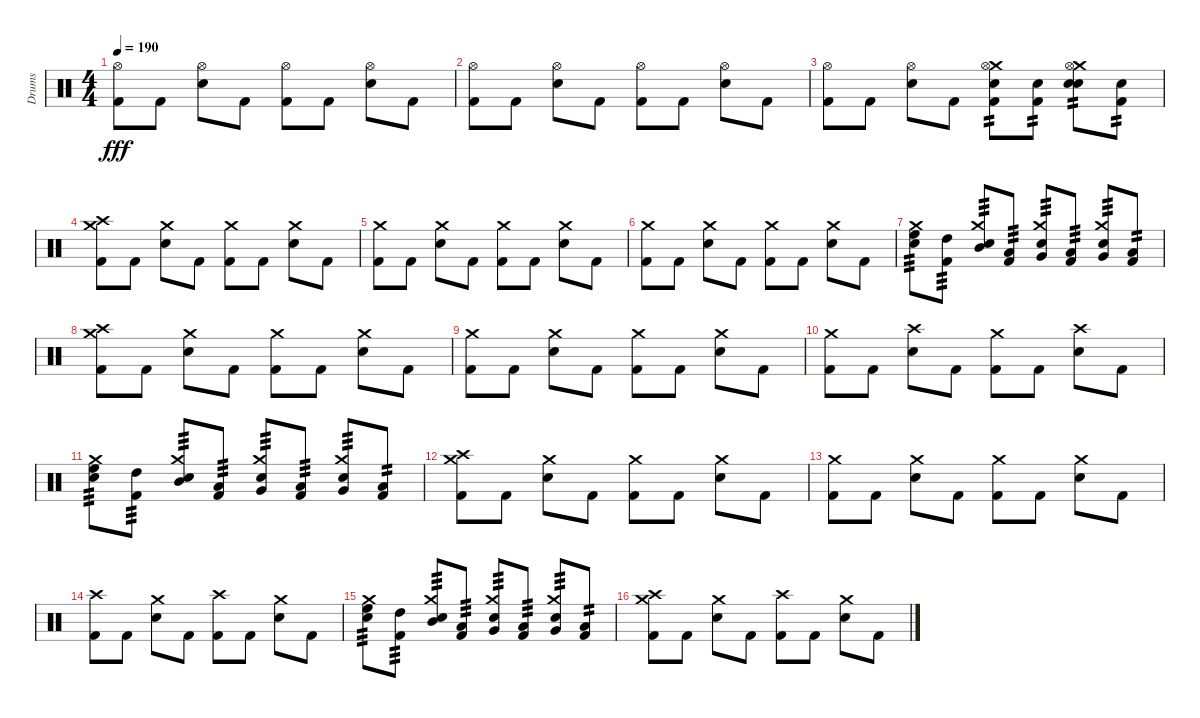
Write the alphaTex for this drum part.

\track ("Drums" "Drums") {instrument percussion}
\staff {score}
\articulation defaults
\ts (4 4)
\tempo 190
\clef neutral
\ks c
("Hi-Hat (open)" "Kick (hit) 2").8{dy fff} "Kick (hit) 2".8 ("Hi-Hat (open)" "Snare (hit) 2").8 "Kick (hit) 2".8 ("Hi-Hat (open)" "Kick (hit) 2").8 "Kick (hit) 2".8 ("Hi-Hat (open)" "Snare (hit) 2").8 "Kick (hit) 2".8 |
("Hi-Hat (open)" "Kick (hit) 2").8 "Kick (hit) 2".8 ("Hi-Hat (open)" "Snare (hit) 2").8 "Kick (hit) 2".8 ("Hi-Hat (open)" "Kick (hit) 2").8 "Kick (hit) 2".8 ("Hi-Hat (open)" "Snare (hit) 2").8 "Kick (hit) 2".8 |
("Hi-Hat (open)" "Kick (hit) 2").8 "Kick (hit) 2".8 ("Hi-Hat (open)" "Snare (hit) 2").8 "Kick (hit) 2".8 ("Crash medium (hit)" "Hi-Hat (open)" "Electric Snare (hit)" "Kick (hit) 2").8{tp 2} ("Electric Snare (hit)" "Kick (hit) 2").8{tp 2} ("Crash medium (hit)" "Hi-Hat (open)" "Electric Snare (hit)" "Snare (hit) 2").8{tp 2} ("Electric Snare (hit)" "Kick (hit) 2").8{tp 2} |
("Crash medium (hit)" "Crash high (hit)" "Kick (hit) 2").8 "Kick (hit) 2".8 ("Crash medium (hit)" "Snare (hit) 2").8 "Kick (hit) 2".8 ("Crash medium (hit)" "Kick (hit) 2").8 "Kick (hit) 2".8 ("Crash medium (hit)" "Snare (hit) 2").8 "Kick (hit) 2".8 |
("Crash medium (hit)" "Kick (hit) 2").8 "Kick (hit) 2".8 ("Crash medium (hit)" "Snare (hit) 2").8 "Kick (hit) 2".8 ("Crash medium (hit)" "Kick (hit) 2").8 "Kick (hit) 2".8 ("Crash medium (hit)" "Snare (hit) 2").8 "Kick (hit) 2".8 |
("Crash medium (hit)" "Kick (hit) 2").8 "Kick (hit) 2".8 ("Crash medium (hit)" "Snare (hit) 2").8 "Kick (hit) 2".8 ("Crash medium (hit)" "Kick (hit) 2").8 "Kick (hit) 2".8 ("Crash medium (hit)" "Snare (hit) 2").8 "Kick (hit) 2".8 |
("Crash medium (hit)" "High Floor Tom (hit)" "Snare (hit) 2").8{tp 3} ("High Tom (hit)" "Kick (hit) 2").8{tp 3} ("Crash medium (hit)" "Mid Tom (hit)" "Snare (hit) 2").8{tp 3} ("Low Tom (hit)" "Kick (hit) 2").8{tp 3} ("Crash medium (hit)" "Very Low Tom (hit)" "Snare (hit) 2").8{tp 3} ("Low Floor Tom (hit)" "Kick (hit) 2").8{tp 3} ("Crash medium (hit)" "Very Low Tom (hit)" "Snare (hit) 2").8{tp 3} ("Low Floor Tom (hit)" "Kick (hit) 2").8{tp 2} |
("Crash medium (hit)" "Crash high (hit)" "Kick (hit) 2").8 "Kick (hit) 2".8 ("Crash medium (hit)" "Snare (hit) 2").8 "Kick (hit) 2".8 ("Crash medium (hit)" "Kick (hit) 2").8 "Kick (hit) 2".8 ("Crash medium (hit)" "Snare (hit) 2").8 "Kick (hit) 2".8 |
("Crash medium (hit)" "Kick (hit) 2").8 "Kick (hit) 2".8 ("Crash medium (hit)" "Snare (hit) 2").8 "Kick (hit) 2".8 ("Crash medium (hit)" "Kick (hit) 2").8 "Kick (hit) 2".8 ("Crash medium (hit)" "Snare (hit) 2").8 "Kick (hit) 2".8 |
("Crash medium (hit)" "Kick (hit) 2").8 "Kick (hit) 2".8 ("Crash high (hit)" "Snare (hit) 2").8 "Kick (hit) 2".8 ("Crash medium (hit)" "Kick (hit) 2").8 "Kick (hit) 2".8 ("Crash high (hit)" "Snare (hit) 2").8 "Kick (hit) 2".8 |
("Crash medium (hit)" "High Floor Tom (hit)" "Snare (hit) 2").8{tp 3} ("High Tom (hit)" "Kick (hit) 2").8{tp 3} ("Crash medium (hit)" "Mid Tom (hit)" "Snare (hit) 2").8{tp 3} ("Low Tom (hit)" "Kick (hit) 2").8{tp 3} ("Crash medium (hit)" "Very Low Tom (hit)" "Snare (hit) 2").8{tp 3} ("Low Floor Tom (hit)" "Kick (hit) 2").8{tp 3} ("Crash medium (hit)" "Very Low Tom (hit)" "Snare (hit) 2").8{tp 3} ("Low Floor Tom (hit)" "Kick (hit) 2").8{tp 2} |
("Crash medium (hit)" "Crash high (hit)" "Kick (hit) 2").8 "Kick (hit) 2".8 ("Crash medium (hit)" "Snare (hit) 2").8 "Kick (hit) 2".8 ("Crash medium (hit)" "Kick (hit) 2").8 "Kick (hit) 2".8 ("Crash medium (hit)" "Snare (hit) 2").8 "Kick (hit) 2".8 |
("Crash medium (hit)" "Kick (hit) 2").8 "Kick (hit) 2".8 ("Crash medium (hit)" "Snare (hit) 2").8 "Kick (hit) 2".8 ("Crash medium (hit)" "Kick (hit) 2").8 "Kick (hit) 2".8 ("Crash medium (hit)" "Snare (hit) 2").8 "Kick (hit) 2".8 |
("Crash high (hit)" "Kick (hit) 2").8 "Kick (hit) 2".8 ("Crash medium (hit)" "Snare (hit) 2").8 "Kick (hit) 2".8 ("Crash high (hit)" "Kick (hit) 2").8 "Kick (hit) 2".8 ("Crash medium (hit)" "Snare (hit) 2").8 "Kick (hit) 2".8 |
("Crash medium (hit)" "High Floor Tom (hit)" "Snare (hit) 2").8{tp 3} ("High Tom (hit)" "Kick (hit) 2").8{tp 3} ("Crash medium (hit)" "Mid Tom (hit)" "Snare (hit) 2").8{tp 3} ("Low Tom (hit)" "Kick (hit) 2").8{tp 3} ("Crash medium (hit)" "Very Low Tom (hit)" "Snare (hit) 2").8{tp 3} ("Low Floor Tom (hit)" "Kick (hit) 2").8{tp 3} ("Crash medium (hit)" "Very Low Tom (hit)" "Snare (hit) 2").8{tp 3} ("Low Floor Tom (hit)" "Kick (hit) 2").8{tp 2} |
("Crash medium (hit)" "Crash high (hit)" "Kick (hit) 2").8 "Kick (hit) 2".8 ("Crash medium (hit)" "Snare (hit) 2").8 "Kick (hit) 2".8 ("Crash high (hit)" "Kick (hit) 2").8 "Kick (hit) 2".8 ("Crash medium (hit)" "Snare (hit) 2").8 "Kick (hit) 2".8
